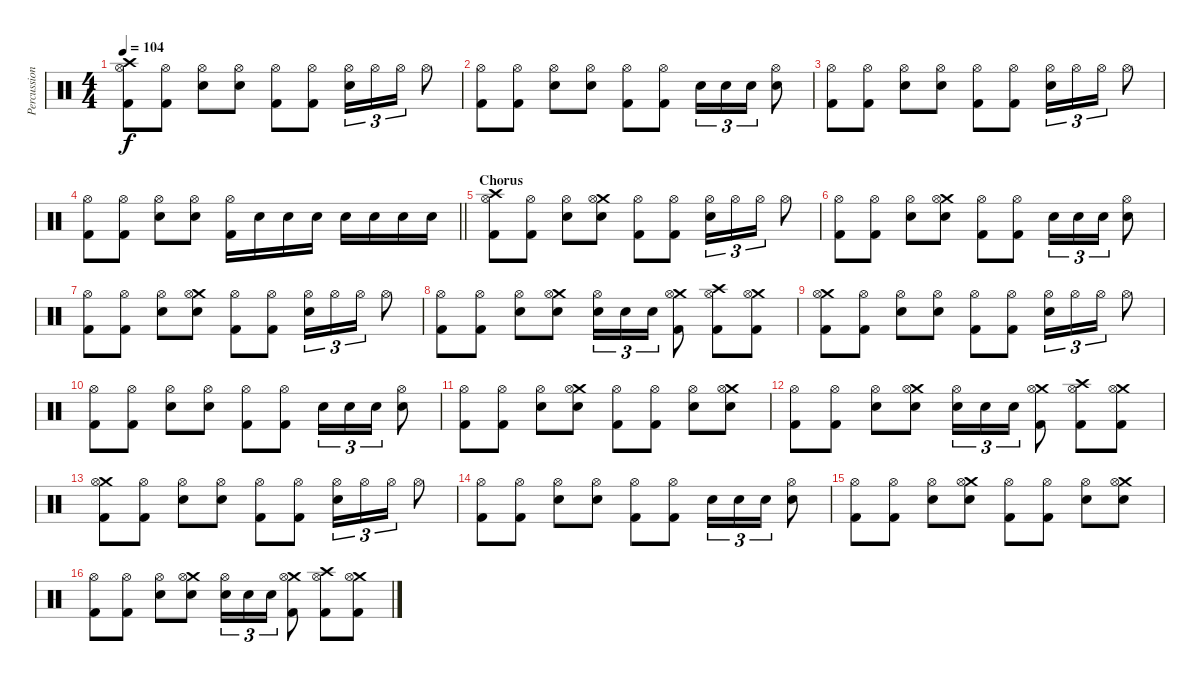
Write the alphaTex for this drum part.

\track ("Percussion" "Percussion") {instrument percussion}
\staff {score}
\articulation defaults
\ts (4 4)
\tempo 104
\clef neutral
\ks c
("Crash high (hit)" "Hi-Hat (open)" "Kick (hit) 2").8{dy f} ("Hi-Hat (open)" "Kick (hit) 2").8 ("Hi-Hat (open)" "Snare (hit) 2").8 ("Hi-Hat (open)" "Snare (hit) 2").8 ("Hi-Hat (open)" "Kick (hit) 2").8 ("Hi-Hat (open)" "Kick (hit) 2").8 ("Hi-Hat (open)" "Snare (hit) 2").16{tu (3 2)} "Hi-Hat (open)".16{tu (3 2)} "Hi-Hat (open)".16{tu (3 2)} "Hi-Hat (open)".8 |
("Hi-Hat (open)" "Kick (hit) 2").8 ("Hi-Hat (open)" "Kick (hit) 2").8 ("Hi-Hat (open)" "Snare (hit) 2").8 ("Hi-Hat (open)" "Snare (hit) 2").8 ("Hi-Hat (open)" "Kick (hit) 2").8 ("Hi-Hat (open)" "Kick (hit) 2").8 "Snare (hit) 2".16{tu (3 2)} "Snare (hit) 2".16{tu (3 2)} "Snare (hit) 2".16{tu (3 2)} ("Hi-Hat (open)" "Snare (hit) 2").8 |
("Hi-Hat (open)" "Kick (hit) 2").8 ("Hi-Hat (open)" "Kick (hit) 2").8 ("Hi-Hat (open)" "Snare (hit) 2").8 ("Hi-Hat (open)" "Snare (hit) 2").8 ("Hi-Hat (open)" "Kick (hit) 2").8 ("Hi-Hat (open)" "Kick (hit) 2").8 ("Hi-Hat (open)" "Snare (hit) 2").16{tu (3 2)} "Hi-Hat (open)".16{tu (3 2)} "Hi-Hat (open)".16{tu (3 2)} "Hi-Hat (open)".8 |
\barLineRight lightlight
("Hi-Hat (open)" "Kick (hit) 2").8 ("Hi-Hat (open)" "Kick (hit) 2").8 ("Hi-Hat (open)" "Snare (hit) 2").8 ("Hi-Hat (open)" "Snare (hit) 2").8 ("Hi-Hat (open)" "Kick (hit) 2").16 "Snare (hit) 2".16 "Snare (hit) 2".16 "Snare (hit) 2".16 "Snare (hit) 2".16 "Snare (hit) 2".16 "Snare (hit) 2".16 "Snare (hit) 2".16 |
\section ("" "Chorus")
("Crash high (hit)" "Hi-Hat (open)" "Kick (hit) 2").8 ("Hi-Hat (open)" "Kick (hit) 2").8 ("Hi-Hat (open)" "Snare (hit) 2").8 ("Crash medium (hit)" "Hi-Hat (open)" "Snare (hit) 2").8 ("Hi-Hat (open)" "Kick (hit) 2").8 ("Hi-Hat (open)" "Kick (hit) 2").8 ("Hi-Hat (open)" "Snare (hit) 2").16{tu (3 2)} "Hi-Hat (open)".16{tu (3 2)} "Hi-Hat (open)".16{tu (3 2)} "Hi-Hat (open)".8 |
("Hi-Hat (open)" "Kick (hit) 2").8 ("Hi-Hat (open)" "Kick (hit) 2").8 ("Hi-Hat (open)" "Snare (hit) 2").8 ("Crash medium (hit)" "Hi-Hat (open)" "Snare (hit) 2").8 ("Hi-Hat (open)" "Kick (hit) 2").8 ("Hi-Hat (open)" "Kick (hit) 2").8 "Snare (hit) 2".16{tu (3 2)} "Snare (hit) 2".16{tu (3 2)} "Snare (hit) 2".16{tu (3 2)} ("Hi-Hat (open)" "Snare (hit) 2").8 |
("Hi-Hat (open)" "Kick (hit) 2").8 ("Hi-Hat (open)" "Kick (hit) 2").8 ("Hi-Hat (open)" "Snare (hit) 2").8 ("Crash medium (hit)" "Hi-Hat (open)" "Snare (hit) 2").8 ("Hi-Hat (open)" "Kick (hit) 2").8 ("Hi-Hat (open)" "Kick (hit) 2").8 ("Hi-Hat (open)" "Snare (hit) 2").16{tu (3 2)} "Hi-Hat (open)".16{tu (3 2)} "Hi-Hat (open)".16{tu (3 2)} "Hi-Hat (open)".8 |
("Hi-Hat (open)" "Kick (hit) 2").8 ("Hi-Hat (open)" "Kick (hit) 2").8 ("Hi-Hat (open)" "Snare (hit) 2").8 ("Crash medium (hit)" "Hi-Hat (open)" "Snare (hit) 2").8 ("Hi-Hat (open)" "Snare (hit) 2").16{tu (3 2)} "Snare (hit) 2".16{tu (3 2)} "Snare (hit) 2".16{tu (3 2)} ("Crash medium (hit)" "Hi-Hat (open)" "Kick (hit) 2").8 ("Crash high (hit)" "Hi-Hat (open)" "Kick (hit) 2").8 ("Crash medium (hit)" "Hi-Hat (open)" "Kick (hit) 2").8 |
("Crash medium (hit)" "Hi-Hat (open)" "Kick (hit) 2").8 ("Hi-Hat (open)" "Kick (hit) 2").8 ("Hi-Hat (open)" "Snare (hit) 2").8 ("Hi-Hat (open)" "Snare (hit) 2").8 ("Hi-Hat (open)" "Kick (hit) 2").8 ("Hi-Hat (open)" "Kick (hit) 2").8 ("Hi-Hat (open)" "Snare (hit) 2").16{tu (3 2)} "Hi-Hat (open)".16{tu (3 2)} "Hi-Hat (open)".16{tu (3 2)} "Hi-Hat (open)".8 |
("Hi-Hat (open)" "Kick (hit) 2").8 ("Hi-Hat (open)" "Kick (hit) 2").8 ("Hi-Hat (open)" "Snare (hit) 2").8 ("Hi-Hat (open)" "Snare (hit) 2").8 ("Hi-Hat (open)" "Kick (hit) 2").8 ("Hi-Hat (open)" "Kick (hit) 2").8 "Snare (hit) 2".16{tu (3 2)} "Snare (hit) 2".16{tu (3 2)} "Snare (hit) 2".16{tu (3 2)} ("Hi-Hat (open)" "Snare (hit) 2").8 |
("Hi-Hat (open)" "Kick (hit) 2").8 ("Hi-Hat (open)" "Kick (hit) 2").8 ("Hi-Hat (open)" "Snare (hit) 2").8 ("Crash medium (hit)" "Hi-Hat (open)" "Snare (hit) 2").8 ("Hi-Hat (open)" "Kick (hit) 2").8 ("Hi-Hat (open)" "Kick (hit) 2").8 ("Hi-Hat (open)" "Snare (hit) 2").8 ("Crash medium (hit)" "Hi-Hat (open)" "Snare (hit) 2").8 |
("Hi-Hat (open)" "Kick (hit) 2").8 ("Hi-Hat (open)" "Kick (hit) 2").8 ("Hi-Hat (open)" "Snare (hit) 2").8 ("Crash medium (hit)" "Hi-Hat (open)" "Snare (hit) 2").8 ("Hi-Hat (open)" "Snare (hit) 2").16{tu (3 2)} "Snare (hit) 2".16{tu (3 2)} "Snare (hit) 2".16{tu (3 2)} ("Crash medium (hit)" "Hi-Hat (open)" "Kick (hit) 2").8 ("Crash high (hit)" "Hi-Hat (open)" "Kick (hit) 2").8 ("Crash medium (hit)" "Hi-Hat (open)" "Kick (hit) 2").8 |
("Crash medium (hit)" "Hi-Hat (open)" "Kick (hit) 2").8 ("Hi-Hat (open)" "Kick (hit) 2").8 ("Hi-Hat (open)" "Snare (hit) 2").8 ("Hi-Hat (open)" "Snare (hit) 2").8 ("Hi-Hat (open)" "Kick (hit) 2").8 ("Hi-Hat (open)" "Kick (hit) 2").8 ("Hi-Hat (open)" "Snare (hit) 2").16{tu (3 2)} "Hi-Hat (open)".16{tu (3 2)} "Hi-Hat (open)".16{tu (3 2)} "Hi-Hat (open)".8 |
("Hi-Hat (open)" "Kick (hit) 2").8 ("Hi-Hat (open)" "Kick (hit) 2").8 ("Hi-Hat (open)" "Snare (hit) 2").8 ("Hi-Hat (open)" "Snare (hit) 2").8 ("Hi-Hat (open)" "Kick (hit) 2").8 ("Hi-Hat (open)" "Kick (hit) 2").8 "Snare (hit) 2".16{tu (3 2)} "Snare (hit) 2".16{tu (3 2)} "Snare (hit) 2".16{tu (3 2)} ("Hi-Hat (open)" "Snare (hit) 2").8 |
("Hi-Hat (open)" "Kick (hit) 2").8 ("Hi-Hat (open)" "Kick (hit) 2").8 ("Hi-Hat (open)" "Snare (hit) 2").8 ("Crash medium (hit)" "Hi-Hat (open)" "Snare (hit) 2").8 ("Hi-Hat (open)" "Kick (hit) 2").8 ("Hi-Hat (open)" "Kick (hit) 2").8 ("Hi-Hat (open)" "Snare (hit) 2").8 ("Crash medium (hit)" "Hi-Hat (open)" "Snare (hit) 2").8 |
("Hi-Hat (open)" "Kick (hit) 2").8 ("Hi-Hat (open)" "Kick (hit) 2").8 ("Hi-Hat (open)" "Snare (hit) 2").8 ("Crash medium (hit)" "Hi-Hat (open)" "Snare (hit) 2").8 ("Hi-Hat (open)" "Snare (hit) 2").16{tu (3 2)} "Snare (hit) 2".16{tu (3 2)} "Snare (hit) 2".16{tu (3 2)} ("Crash medium (hit)" "Hi-Hat (open)" "Kick (hit) 2").8 ("Crash high (hit)" "Hi-Hat (open)" "Kick (hit) 2").8 ("Crash medium (hit)" "Hi-Hat (open)" "Kick (hit) 2").8
